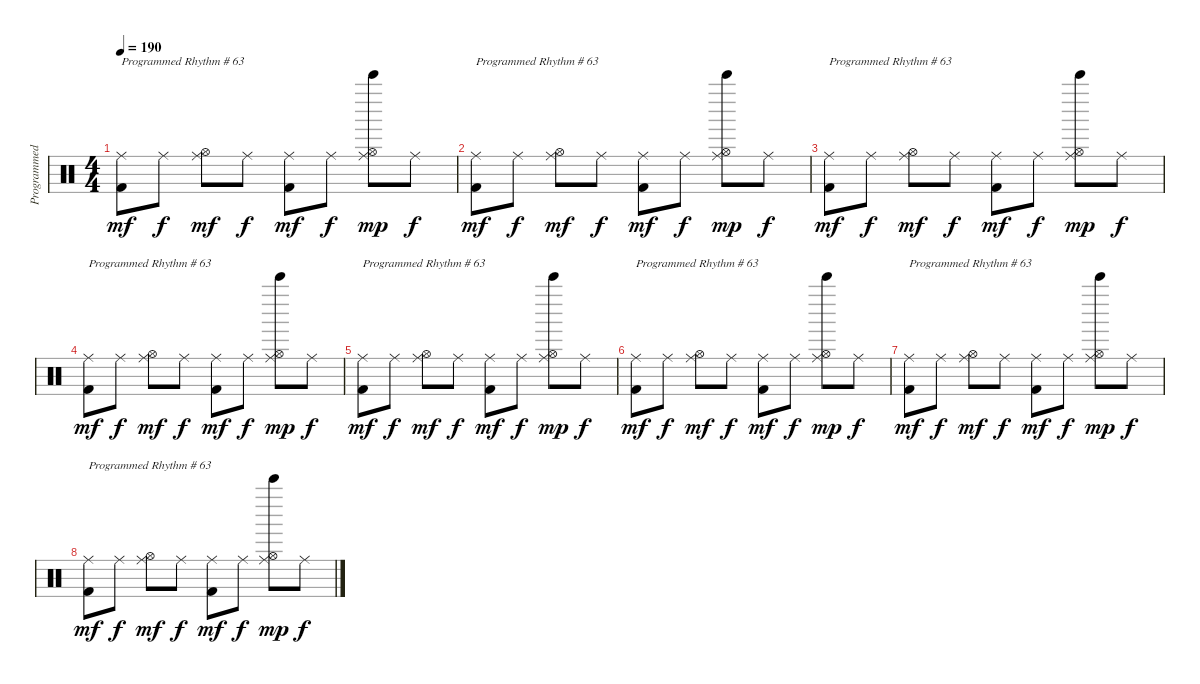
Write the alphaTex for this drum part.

\track ("Programmed Drums" "Programmed") {instrument percussion}
\staff {score}
\articulation defaults
\ts (4 4)
\tempo 190
\clef neutral
\ks c
("Ride (middle)" "Kick (hit) 2").8{txt "Programmed Rhythm # 63" dy mf volume 12 balance 0} "Ride (middle)".8{dy f} ("Ride (middle)" "Hi-Hat (open)").8{dy mf} "Ride (middle)".8{dy f} ("Ride (middle)" "Kick (hit) 2").8{dy mf} "Ride (middle)".8{dy f} ("Ride (middle)" "Hi-Hat (open)" "Bell Tree (hit)").8{dy mp} "Ride (middle)".8{dy f} |
("Ride (middle)" "Kick (hit) 2").8{txt "Programmed Rhythm # 63" dy mf} "Ride (middle)".8{dy f} ("Ride (middle)" "Hi-Hat (open)").8{dy mf} "Ride (middle)".8{dy f} ("Ride (middle)" "Kick (hit) 2").8{dy mf} "Ride (middle)".8{dy f} ("Ride (middle)" "Hi-Hat (open)" "Bell Tree (hit)").8{dy mp} "Ride (middle)".8{dy f} |
("Ride (middle)" "Kick (hit) 2").8{txt "Programmed Rhythm # 63" dy mf} "Ride (middle)".8{dy f} ("Ride (middle)" "Hi-Hat (open)").8{dy mf} "Ride (middle)".8{dy f} ("Ride (middle)" "Kick (hit) 2").8{dy mf} "Ride (middle)".8{dy f} ("Ride (middle)" "Hi-Hat (open)" "Bell Tree (hit)").8{dy mp} "Ride (middle)".8{dy f} |
("Ride (middle)" "Kick (hit) 2").8{txt "Programmed Rhythm # 63" dy mf} "Ride (middle)".8{dy f} ("Ride (middle)" "Hi-Hat (open)").8{dy mf} "Ride (middle)".8{dy f} ("Ride (middle)" "Kick (hit) 2").8{dy mf} "Ride (middle)".8{dy f} ("Ride (middle)" "Hi-Hat (open)" "Bell Tree (hit)").8{dy mp} "Ride (middle)".8{dy f} |
("Ride (middle)" "Kick (hit) 2").8{txt "Programmed Rhythm # 63" dy mf volume 0 balance 0} "Ride (middle)".8{dy f} ("Ride (middle)" "Hi-Hat (open)").8{dy mf} "Ride (middle)".8{dy f} ("Ride (middle)" "Kick (hit) 2").8{dy mf} "Ride (middle)".8{dy f} ("Ride (middle)" "Hi-Hat (open)" "Bell Tree (hit)").8{dy mp} "Ride (middle)".8{dy f} |
("Ride (middle)" "Kick (hit) 2").8{txt "Programmed Rhythm # 63" dy mf} "Ride (middle)".8{dy f} ("Ride (middle)" "Hi-Hat (open)").8{dy mf} "Ride (middle)".8{dy f} ("Ride (middle)" "Kick (hit) 2").8{dy mf} "Ride (middle)".8{dy f} ("Ride (middle)" "Hi-Hat (open)" "Bell Tree (hit)").8{dy mp} "Ride (middle)".8{dy f} |
("Ride (middle)" "Kick (hit) 2").8{txt "Programmed Rhythm # 63" dy mf} "Ride (middle)".8{dy f} ("Ride (middle)" "Hi-Hat (open)").8{dy mf} "Ride (middle)".8{dy f} ("Ride (middle)" "Kick (hit) 2").8{dy mf} "Ride (middle)".8{dy f} ("Ride (middle)" "Hi-Hat (open)" "Bell Tree (hit)").8{dy mp} "Ride (middle)".8{dy f} |
("Ride (middle)" "Kick (hit) 2").8{txt "Programmed Rhythm # 63" dy mf} "Ride (middle)".8{dy f} ("Ride (middle)" "Hi-Hat (open)").8{dy mf} "Ride (middle)".8{dy f} ("Ride (middle)" "Kick (hit) 2").8{dy mf} "Ride (middle)".8{dy f} ("Ride (middle)" "Hi-Hat (open)" "Bell Tree (hit)").8{dy mp} "Ride (middle)".8{dy f}
